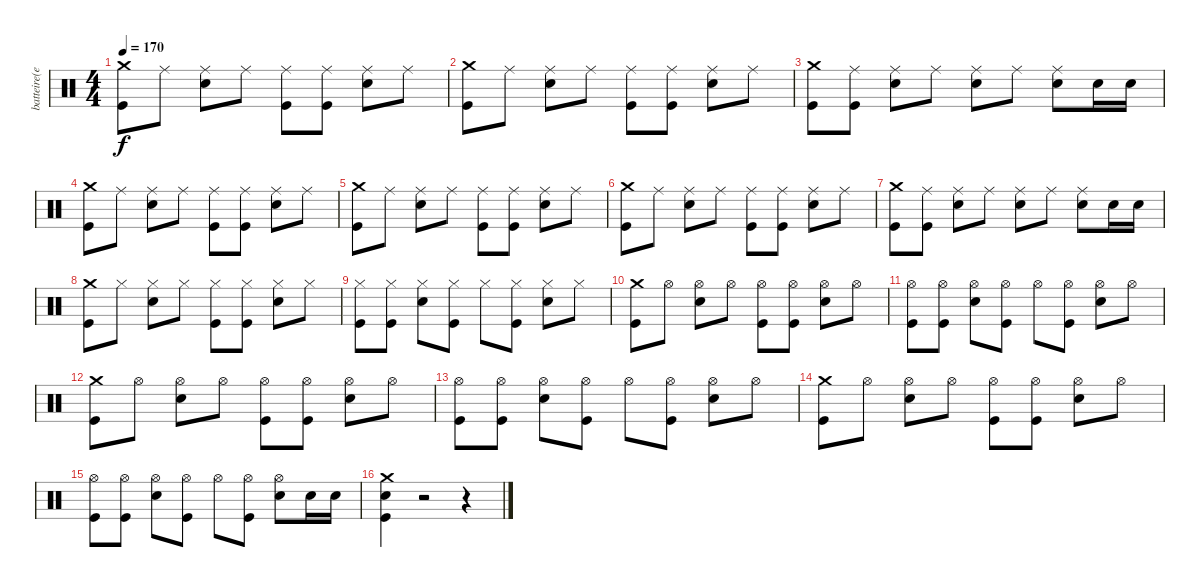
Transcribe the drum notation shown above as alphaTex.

\track ("batteire(eric)" "batteire(e") {instrument percussion}
\staff {score}
\articulation defaults
\ts (4 4)
\tempo 170
\clef neutral
\ks c
("Crash medium (hit)" "Kick (hit)").8{dy f} "Ride (middle)".8 ("Ride (middle)" "Snare (hit) 2").8 "Ride (middle)".8 ("Ride (middle)" "Kick (hit)").8 ("Ride (middle)" "Kick (hit)").8 ("Ride (middle)" "Snare (hit) 2").8 "Ride (middle)".8 |
("Crash medium (hit)" "Kick (hit)").8 "Ride (middle)".8 ("Ride (middle)" "Snare (hit) 2").8 "Ride (middle)".8 ("Ride (middle)" "Kick (hit)").8 ("Ride (middle)" "Kick (hit)").8 ("Ride (middle)" "Snare (hit) 2").8 "Ride (middle)".8 |
("Crash medium (hit)" "Kick (hit)").8 ("Ride (middle)" "Kick (hit)").8 ("Ride (middle)" "Snare (hit) 2").8 "Ride (middle)".8 ("Ride (middle)" "Snare (hit) 2").8 "Ride (middle)".8 ("Ride (middle)" "Snare (hit) 2").8 "Snare (hit) 2".16 "Snare (hit) 2".16 |
("Crash medium (hit)" "Kick (hit)").8 "Ride (middle)".8 ("Ride (middle)" "Snare (hit) 2").8 "Ride (middle)".8 ("Ride (middle)" "Kick (hit)").8 ("Ride (middle)" "Kick (hit)").8 ("Ride (middle)" "Snare (hit) 2").8 "Ride (middle)".8 |
("Crash medium (hit)" "Kick (hit)").8 "Ride (middle)".8 ("Ride (middle)" "Snare (hit) 2").8 "Ride (middle)".8 ("Ride (middle)" "Kick (hit)").8 ("Ride (middle)" "Kick (hit)").8 ("Ride (middle)" "Snare (hit) 2").8 "Ride (middle)".8 |
("Crash medium (hit)" "Kick (hit)").8 "Ride (middle)".8 ("Ride (middle)" "Snare (hit) 2").8 "Ride (middle)".8 ("Ride (middle)" "Kick (hit)").8 ("Ride (middle)" "Kick (hit)").8 ("Ride (middle)" "Snare (hit) 2").8 "Ride (middle)".8 |
("Crash medium (hit)" "Kick (hit)").8 ("Ride (middle)" "Kick (hit)").8 ("Ride (middle)" "Snare (hit) 2").8 "Ride (middle)".8 ("Ride (middle)" "Snare (hit) 2").8 "Ride (middle)".8 ("Ride (middle)" "Snare (hit) 2").8 "Snare (hit) 2".16 "Snare (hit) 2".16 |
("Crash medium (hit)" "Kick (hit)").8 "Hi-Hat (closed)".8 ("Hi-Hat (closed)" "Snare (hit) 2").8 "Hi-Hat (closed)".8 ("Hi-Hat (closed)" "Kick (hit)").8 ("Hi-Hat (closed)" "Kick (hit)").8 ("Hi-Hat (closed)" "Snare (hit) 2").8 "Hi-Hat (closed)".8 |
("Hi-Hat (closed)" "Kick (hit)").8 ("Hi-Hat (closed)" "Kick (hit)").8 ("Hi-Hat (closed)" "Snare (hit) 2").8 ("Hi-Hat (closed)" "Kick (hit)").8 "Hi-Hat (closed)".8 ("Hi-Hat (closed)" "Kick (hit)").8 ("Hi-Hat (closed)" "Snare (hit) 2").8 "Hi-Hat (closed)".8 |
("Crash medium (hit)" "Kick (hit)").8 "Hi-Hat (open)".8 ("Hi-Hat (open)" "Snare (hit) 2").8 "Hi-Hat (open)".8 ("Hi-Hat (open)" "Kick (hit)").8 ("Hi-Hat (open)" "Kick (hit)").8 ("Hi-Hat (open)" "Snare (hit) 2").8 "Hi-Hat (open)".8 |
("Hi-Hat (open)" "Kick (hit)").8 ("Hi-Hat (open)" "Kick (hit)").8 ("Hi-Hat (open)" "Snare (hit) 2").8 ("Hi-Hat (open)" "Kick (hit)").8 "Hi-Hat (open)".8 ("Hi-Hat (open)" "Kick (hit)").8 ("Hi-Hat (open)" "Snare (hit) 2").8 "Hi-Hat (open)".8 |
("Crash medium (hit)" "Kick (hit)").8 "Hi-Hat (open)".8 ("Hi-Hat (open)" "Snare (hit) 2").8 "Hi-Hat (open)".8 ("Hi-Hat (open)" "Kick (hit)").8 ("Hi-Hat (open)" "Kick (hit)").8 ("Hi-Hat (open)" "Snare (hit) 2").8 "Hi-Hat (open)".8 |
("Hi-Hat (open)" "Kick (hit)").8 ("Hi-Hat (open)" "Kick (hit)").8 ("Hi-Hat (open)" "Snare (hit) 2").8 ("Hi-Hat (open)" "Kick (hit)").8 "Hi-Hat (open)".8 ("Hi-Hat (open)" "Kick (hit)").8 ("Hi-Hat (open)" "Snare (hit) 2").8 "Hi-Hat (open)".8 |
("Crash medium (hit)" "Kick (hit)").8 "Hi-Hat (open)".8 ("Hi-Hat (open)" "Snare (hit) 2").8 "Hi-Hat (open)".8 ("Hi-Hat (open)" "Kick (hit)").8 ("Hi-Hat (open)" "Kick (hit)").8 ("Hi-Hat (open)" "Snare (hit) 2").8 "Hi-Hat (open)".8 |
("Hi-Hat (open)" "Kick (hit)").8 ("Hi-Hat (open)" "Kick (hit)").8 ("Hi-Hat (open)" "Snare (hit) 2").8 ("Hi-Hat (open)" "Kick (hit)").8 "Hi-Hat (open)".8 ("Hi-Hat (open)" "Kick (hit)").8 ("Hi-Hat (open)" "Snare (hit) 2").8 "Snare (hit) 2".16 "Snare (hit) 2".16 |
("Crash medium (hit)" "Snare (hit) 2" "Kick (hit)").4 r.2 r.4
